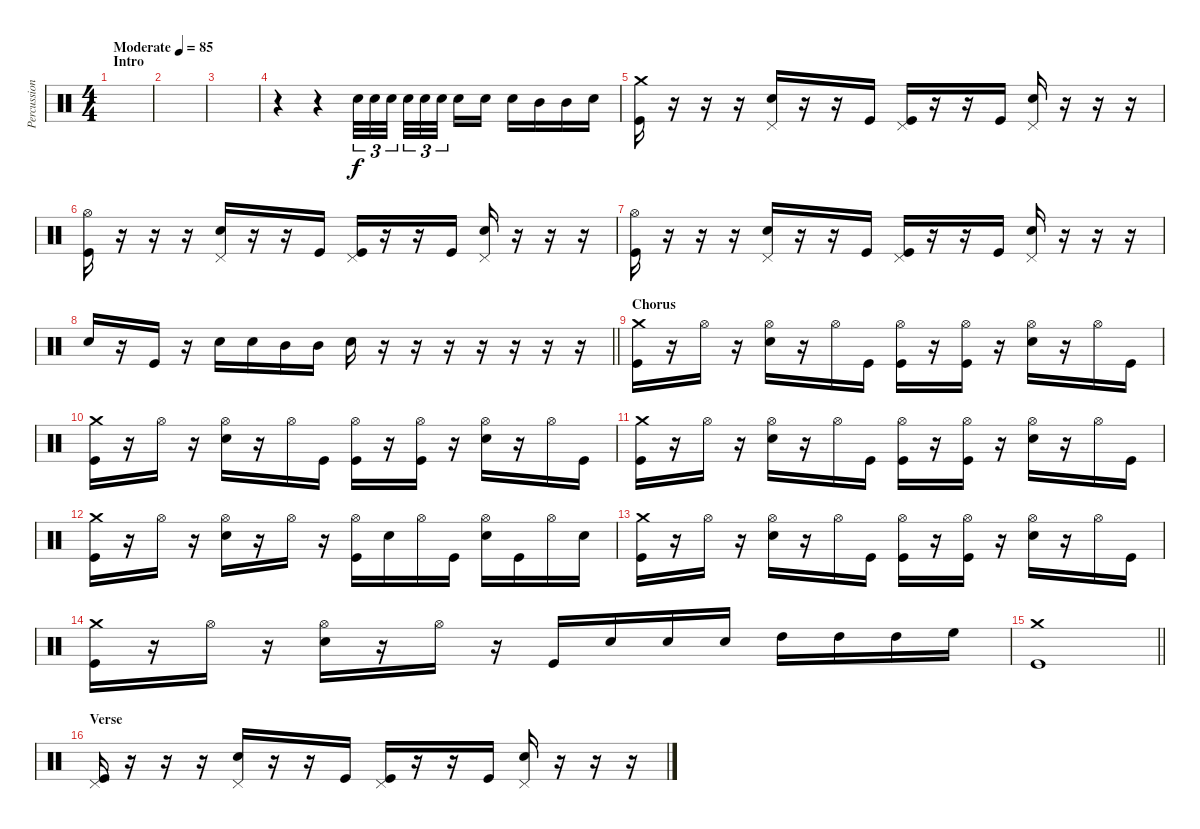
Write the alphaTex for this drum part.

\track ("Percussion" "Percussion") {instrument percussion}
\staff {score}
\articulation defaults
\ts (4 4)
\section ("" "Intro")
\tempo (85 "Moderate")
\clef neutral
\ks c
|
|
|
r.4 r.4 "Snare (hit) 2".32{tu (3 2)} "Snare (hit) 2".32{tu (3 2)} "Snare (hit) 2".32{tu (3 2) beam splitsecondary} "Snare (hit) 2".32{tu (3 2)} "Snare (hit) 2".32{tu (3 2)} "Snare (hit) 2".32{tu (3 2) beam splitsecondary} "Snare (hit) 2".16 "Snare (hit) 2".16 "Snare (hit) 2".16 "Mid Tom (hit)".16 "Mid Tom (hit)".16 "Snare (hit) 2".16 |
("Crash medium (hit)" "Kick (hit)").16 r.16 r.16 r.16 ("Pedal Hi-Hat (hit)" "Snare (hit) 2").16 r.16 r.16 "Kick (hit)".16 ("Pedal Hi-Hat (hit)" "Kick (hit)").16 r.16 r.16 "Kick (hit)".16 ("Pedal Hi-Hat (hit)" "Snare (hit) 2").16 r.16 r.16 r.16 |
("Hi-Hat (open)" "Kick (hit)").16 r.16 r.16 r.16 ("Pedal Hi-Hat (hit)" "Snare (hit) 2").16 r.16 r.16 "Kick (hit)".16 ("Pedal Hi-Hat (hit)" "Kick (hit)").16 r.16 r.16 "Kick (hit)".16 ("Pedal Hi-Hat (hit)" "Snare (hit) 2").16 r.16 r.16 r.16 |
("Hi-Hat (open)" "Kick (hit)").16 r.16 r.16 r.16 ("Pedal Hi-Hat (hit)" "Snare (hit) 2").16 r.16 r.16 "Kick (hit)".16 ("Pedal Hi-Hat (hit)" "Kick (hit)").16 r.16 r.16 "Kick (hit)".16 ("Pedal Hi-Hat (hit)" "Snare (hit) 2").16 r.16 r.16 r.16 |
\barLineRight lightlight "Snare (hit) 2".16
r.16 "Kick (hit)".16 r.16 "Snare (hit) 2".16 "Snare (hit) 2".16 "Mid Tom (hit)".16 "Mid Tom (hit)".16 "Snare (hit) 2".16 r.16 r.16 r.16 r.16 r.16 r.16 r.16 |
\section ("" "Chorus")
("Crash medium (hit)" "Kick (hit)").16 r.16 "Hi-Hat (open)".16 r.16 ("Hi-Hat (open)" "Snare (hit) 2").16 r.16 "Hi-Hat (open)".16 "Kick (hit)".16 ("Hi-Hat (open)" "Kick (hit)").16 r.16 ("Hi-Hat (open)" "Kick (hit)").16 r.16 ("Hi-Hat (open)" "Snare (hit) 2").16 r.16 "Hi-Hat (open)".16 "Kick (hit)".16 |
("Crash medium (hit)" "Kick (hit)").16 r.16 "Hi-Hat (open)".16 r.16 ("Hi-Hat (open)" "Snare (hit) 2").16 r.16 "Hi-Hat (open)".16 "Kick (hit)".16 ("Hi-Hat (open)" "Kick (hit)").16 r.16 ("Hi-Hat (open)" "Kick (hit)").16 r.16 ("Hi-Hat (open)" "Snare (hit) 2").16 r.16 "Hi-Hat (open)".16 "Kick (hit)".16 |
("Crash medium (hit)" "Kick (hit)").16 r.16 "Hi-Hat (open)".16 r.16 ("Hi-Hat (open)" "Snare (hit) 2").16 r.16 "Hi-Hat (open)".16 "Kick (hit)".16 ("Hi-Hat (open)" "Kick (hit)").16 r.16 ("Hi-Hat (open)" "Kick (hit)").16 r.16 ("Hi-Hat (open)" "Snare (hit) 2").16 r.16 "Hi-Hat (open)".16 "Kick (hit)".16 |
("Crash medium (hit)" "Kick (hit)").16 r.16 "Hi-Hat (open)".16 r.16 ("Hi-Hat (open)" "Snare (hit) 2").16 r.16 "Hi-Hat (open)".16 r.16 ("Hi-Hat (open)" "Kick (hit)").16 "Snare (hit) 2".16 "Hi-Hat (open)".16 "Kick (hit)".16 ("Hi-Hat (open)" "Snare (hit) 2").16 "Kick (hit)".16 "Hi-Hat (open)".16 "Snare (hit) 2".16 |
("Crash medium (hit)" "Kick (hit)").16 r.16 "Hi-Hat (open)".16 r.16 ("Hi-Hat (open)" "Snare (hit) 2").16 r.16 "Hi-Hat (open)".16 "Kick (hit)".16 ("Hi-Hat (open)" "Kick (hit)").16 r.16 ("Hi-Hat (open)" "Kick (hit)").16 r.16 ("Hi-Hat (open)" "Snare (hit) 2").16 r.16 "Hi-Hat (open)".16 "Kick (hit)".16 |
("Crash medium (hit)" "Kick (hit)").16 r.16 "Hi-Hat (open)".16 r.16 ("Hi-Hat (open)" "Snare (hit) 2").16 r.16 "Hi-Hat (open)".16 r.16 "Kick (hit)".16 "Snare (hit) 2".16 "Snare (hit) 2".16 "Snare (hit) 2".16 "High Tom (hit)".16 "High Tom (hit)".16 "High Tom (hit)".16 "High Floor Tom (hit)".16 |
\barLineRight lightlight
("Crash medium (hit)" "Kick (hit)").1 |
\section ("" "Verse")
("Pedal Hi-Hat (hit)" "Kick (hit)").16 r.16 r.16 r.16 ("Pedal Hi-Hat (hit)" "Snare (hit) 2").16 r.16 r.16 "Kick (hit)".16 ("Pedal Hi-Hat (hit)" "Kick (hit)").16 r.16 r.16 "Kick (hit)".16 ("Pedal Hi-Hat (hit)" "Snare (hit) 2").16 r.16 r.16 r.16
